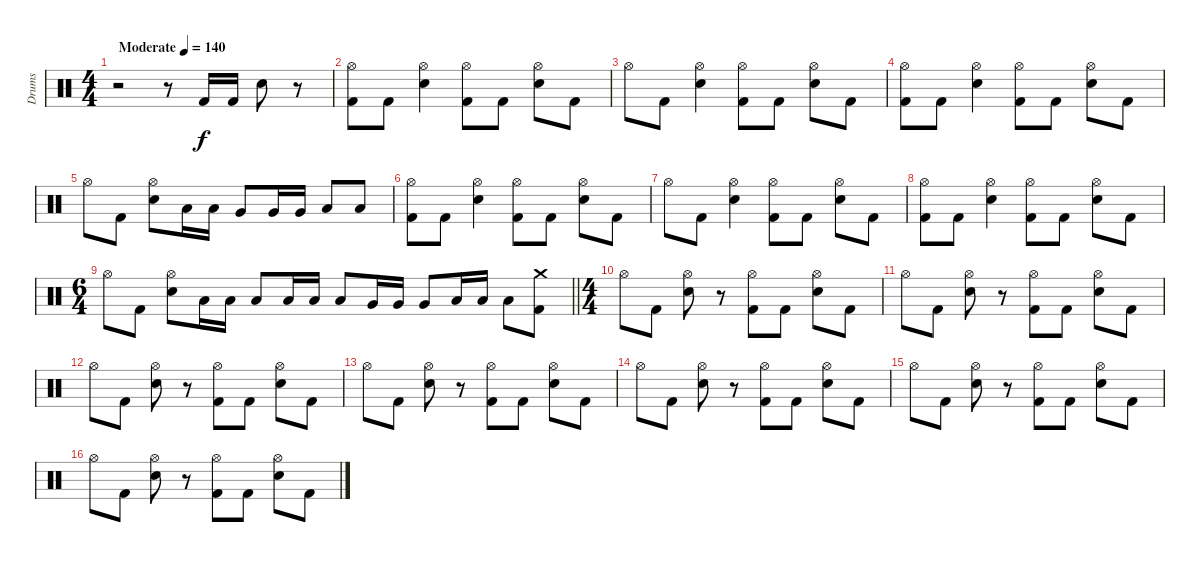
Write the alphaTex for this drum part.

\track ("Drums" "Drums") {instrument percussion}
\staff {score}
\articulation defaults
\ts (4 4)
\tempo (140 "Moderate")
\clef neutral
\ks c
r.2{dy f} r.8 "Kick (hit) 2".16 "Kick (hit) 2".16 "Electric Snare (hit)".8 r.8 |
("Hi-Hat (open)" "Kick (hit) 2").8 "Kick (hit) 2".8 ("Hi-Hat (open)" "Electric Snare (hit)").4 ("Hi-Hat (open)" "Kick (hit) 2").8 "Kick (hit) 2".8 ("Hi-Hat (open)" "Electric Snare (hit)").8 "Kick (hit) 2".8 |
"Hi-Hat (open)".8 "Kick (hit) 2".8 ("Hi-Hat (open)" "Electric Snare (hit)").4 ("Hi-Hat (open)" "Kick (hit) 2").8 "Kick (hit) 2".8 ("Hi-Hat (open)" "Electric Snare (hit)").8 "Kick (hit) 2".8 |
("Hi-Hat (open)" "Kick (hit) 2").8 "Kick (hit) 2".8 ("Hi-Hat (open)" "Electric Snare (hit)").4 ("Hi-Hat (open)" "Kick (hit) 2").8 "Kick (hit) 2".8 ("Hi-Hat (open)" "Electric Snare (hit)").8 "Kick (hit) 2".8 |
"Hi-Hat (open)".8 "Kick (hit) 2".8 ("Hi-Hat (open)" "Electric Snare (hit)").8 "Low Tom (hit)".16 "Low Tom (hit)".16 "Very Low Tom (hit)".8 "Very Low Tom (hit)".16 "Very Low Tom (hit)".16 "Low Floor Tom (hit)".8 "Low Floor Tom (hit)".8 |
("Hi-Hat (open)" "Kick (hit) 2").8 "Kick (hit) 2".8 ("Hi-Hat (open)" "Electric Snare (hit)").4 ("Hi-Hat (open)" "Kick (hit) 2").8 "Kick (hit) 2".8 ("Hi-Hat (open)" "Electric Snare (hit)").8 "Kick (hit) 2".8 |
"Hi-Hat (open)".8 "Kick (hit) 2".8 ("Hi-Hat (open)" "Electric Snare (hit)").4 ("Hi-Hat (open)" "Kick (hit) 2").8 "Kick (hit) 2".8 ("Hi-Hat (open)" "Electric Snare (hit)").8 "Kick (hit) 2".8 |
("Hi-Hat (open)" "Kick (hit) 2").8 "Kick (hit) 2".8 ("Hi-Hat (open)" "Electric Snare (hit)").4 ("Hi-Hat (open)" "Kick (hit) 2").8 "Kick (hit) 2".8 ("Hi-Hat (open)" "Electric Snare (hit)").8 "Kick (hit) 2".8 |
\ts (6 4)
\barLineRight lightlight "Hi-Hat (open)".8 "Kick (hit) 2".8
("Hi-Hat (open)" "Electric Snare (hit)").8 "Low Tom (hit)".16 "Low Tom (hit)".16 "Low Tom (hit)".8 "Low Tom (hit)".16 "Low Tom (hit)".16 "Low Tom (hit)".8 "Very Low Tom (hit)".16 "Very Low Tom (hit)".16 "Very Low Tom (hit)".8 "Low Floor Tom (hit)".16 "Low Floor Tom (hit)".16 "Low Floor Tom (hit)".8 ("Crash medium (hit)" "Kick (hit) 2").8 |
\ts (4 4)
"Hi-Hat (open)".8 "Kick (hit) 2".8 ("Hi-Hat (open)" "Electric Snare (hit)").8 r.8 ("Hi-Hat (open)" "Kick (hit) 2").8 "Kick (hit) 2".8 ("Hi-Hat (open)" "Electric Snare (hit)").8 "Kick (hit) 2".8 |
"Hi-Hat (open)".8 "Kick (hit) 2".8 ("Hi-Hat (open)" "Electric Snare (hit)").8 r.8 ("Hi-Hat (open)" "Kick (hit) 2").8 "Kick (hit) 2".8 ("Hi-Hat (open)" "Electric Snare (hit)").8 "Kick (hit) 2".8 |
"Hi-Hat (open)".8 "Kick (hit) 2".8 ("Hi-Hat (open)" "Electric Snare (hit)").8 r.8 ("Hi-Hat (open)" "Kick (hit) 2").8 "Kick (hit) 2".8 ("Hi-Hat (open)" "Electric Snare (hit)").8 "Kick (hit) 2".8 |
"Hi-Hat (open)".8 "Kick (hit) 2".8 ("Hi-Hat (open)" "Electric Snare (hit)").8 r.8 ("Hi-Hat (open)" "Kick (hit) 2").8 "Kick (hit) 2".8 ("Hi-Hat (open)" "Electric Snare (hit)").8 "Kick (hit) 2".8 |
"Hi-Hat (open)".8 "Kick (hit) 2".8 ("Hi-Hat (open)" "Electric Snare (hit)").8 r.8 ("Hi-Hat (open)" "Kick (hit) 2").8 "Kick (hit) 2".8 ("Hi-Hat (open)" "Electric Snare (hit)").8 "Kick (hit) 2".8 |
"Hi-Hat (open)".8 "Kick (hit) 2".8 ("Hi-Hat (open)" "Electric Snare (hit)").8 r.8 ("Hi-Hat (open)" "Kick (hit) 2").8 "Kick (hit) 2".8 ("Hi-Hat (open)" "Electric Snare (hit)").8 "Kick (hit) 2".8 |
"Hi-Hat (open)".8 "Kick (hit) 2".8 ("Hi-Hat (open)" "Electric Snare (hit)").8 r.8 ("Hi-Hat (open)" "Kick (hit) 2").8 "Kick (hit) 2".8 ("Hi-Hat (open)" "Electric Snare (hit)").8 "Kick (hit) 2".8
